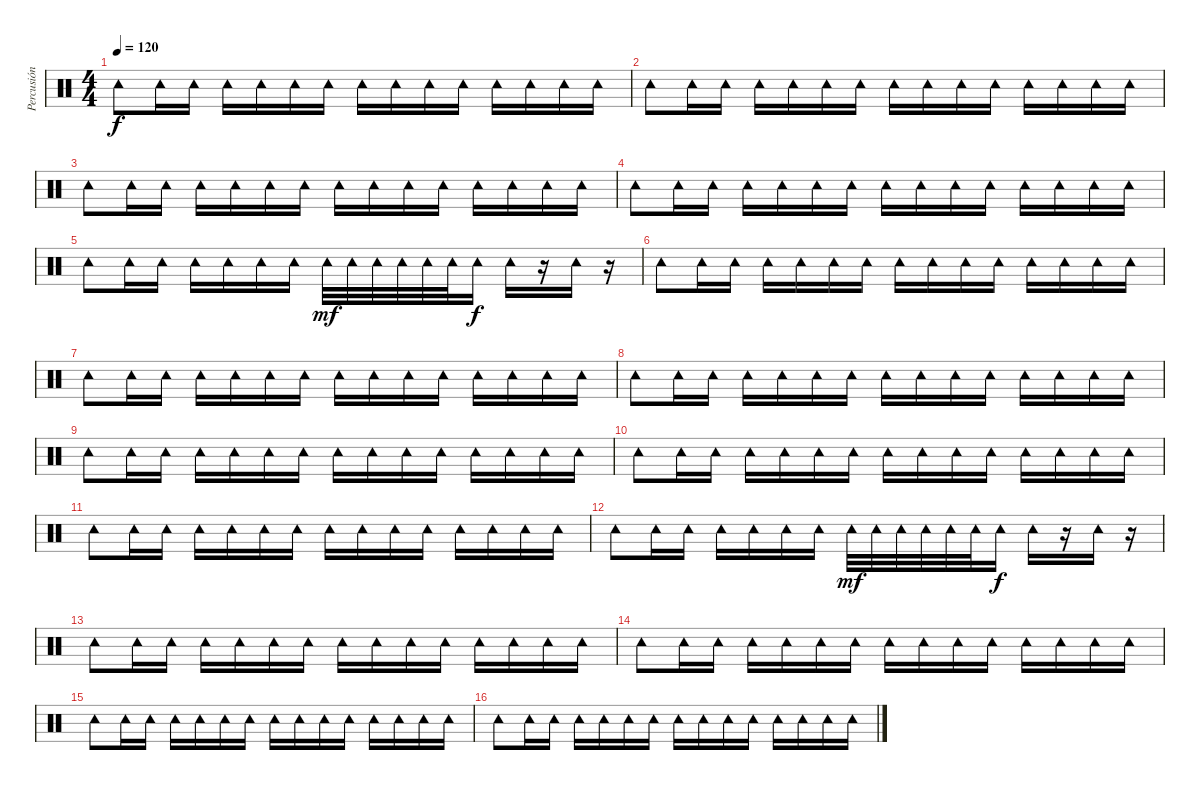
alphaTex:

\track ("Percusión" "Percusión") {instrument percussion}
\staff {score}
\articulation defaults
\ts (4 4)
\tempo 120
\clef neutral
\ks c "Tambourine (hit)".8{dy f} "Tambourine (hit)".16 "Tambourine (hit)".16 "Tambourine (hit)".16 "Tambourine (hit)".16 "Tambourine (hit)".16 "Tambourine (hit)".16 "Tambourine (hit)".16 "Tambourine (hit)".16 "Tambourine (hit)".16 "Tambourine (hit)".16 "Tambourine (hit)".16 "Tambourine (hit)".16 "Tambourine (hit)".16 "Tambourine (hit)".16
|
"Tambourine (hit)".8 "Tambourine (hit)".16 "Tambourine (hit)".16 "Tambourine (hit)".16 "Tambourine (hit)".16 "Tambourine (hit)".16 "Tambourine (hit)".16 "Tambourine (hit)".16 "Tambourine (hit)".16 "Tambourine (hit)".16 "Tambourine (hit)".16 "Tambourine (hit)".16 "Tambourine (hit)".16 "Tambourine (hit)".16 "Tambourine (hit)".16 |
"Tambourine (hit)".8 "Tambourine (hit)".16 "Tambourine (hit)".16 "Tambourine (hit)".16 "Tambourine (hit)".16 "Tambourine (hit)".16 "Tambourine (hit)".16 "Tambourine (hit)".16 "Tambourine (hit)".16 "Tambourine (hit)".16 "Tambourine (hit)".16 "Tambourine (hit)".16 "Tambourine (hit)".16 "Tambourine (hit)".16 "Tambourine (hit)".16 |
"Tambourine (hit)".8 "Tambourine (hit)".16 "Tambourine (hit)".16 "Tambourine (hit)".16 "Tambourine (hit)".16 "Tambourine (hit)".16 "Tambourine (hit)".16 "Tambourine (hit)".16 "Tambourine (hit)".16 "Tambourine (hit)".16 "Tambourine (hit)".16 "Tambourine (hit)".16 "Tambourine (hit)".16 "Tambourine (hit)".16 "Tambourine (hit)".16 |
"Tambourine (hit)".8 "Tambourine (hit)".16 "Tambourine (hit)".16 "Tambourine (hit)".16 "Tambourine (hit)".16 "Tambourine (hit)".16 "Tambourine (hit)".16 "Tambourine (hit)".32{dy mf} "Tambourine (hit)".32 "Tambourine (hit)".32 "Tambourine (hit)".32 "Tambourine (hit)".32 "Tambourine (hit)".32 "Tambourine (hit)".16{dy f} "Tambourine (hit)".16 r.16 "Tambourine (hit)".16 r.16 |
"Tambourine (hit)".8 "Tambourine (hit)".16 "Tambourine (hit)".16 "Tambourine (hit)".16 "Tambourine (hit)".16 "Tambourine (hit)".16 "Tambourine (hit)".16 "Tambourine (hit)".16 "Tambourine (hit)".16 "Tambourine (hit)".16 "Tambourine (hit)".16 "Tambourine (hit)".16 "Tambourine (hit)".16 "Tambourine (hit)".16 "Tambourine (hit)".16 |
"Tambourine (hit)".8 "Tambourine (hit)".16 "Tambourine (hit)".16 "Tambourine (hit)".16 "Tambourine (hit)".16 "Tambourine (hit)".16 "Tambourine (hit)".16 "Tambourine (hit)".16 "Tambourine (hit)".16 "Tambourine (hit)".16 "Tambourine (hit)".16 "Tambourine (hit)".16 "Tambourine (hit)".16 "Tambourine (hit)".16 "Tambourine (hit)".16 |
"Tambourine (hit)".8 "Tambourine (hit)".16 "Tambourine (hit)".16 "Tambourine (hit)".16 "Tambourine (hit)".16 "Tambourine (hit)".16 "Tambourine (hit)".16 "Tambourine (hit)".16 "Tambourine (hit)".16 "Tambourine (hit)".16 "Tambourine (hit)".16 "Tambourine (hit)".16 "Tambourine (hit)".16 "Tambourine (hit)".16 "Tambourine (hit)".16 |
"Tambourine (hit)".8 "Tambourine (hit)".16 "Tambourine (hit)".16 "Tambourine (hit)".16 "Tambourine (hit)".16 "Tambourine (hit)".16 "Tambourine (hit)".16 "Tambourine (hit)".16 "Tambourine (hit)".16 "Tambourine (hit)".16 "Tambourine (hit)".16 "Tambourine (hit)".16 "Tambourine (hit)".16 "Tambourine (hit)".16 "Tambourine (hit)".16 |
"Tambourine (hit)".8 "Tambourine (hit)".16 "Tambourine (hit)".16 "Tambourine (hit)".16 "Tambourine (hit)".16 "Tambourine (hit)".16 "Tambourine (hit)".16 "Tambourine (hit)".16 "Tambourine (hit)".16 "Tambourine (hit)".16 "Tambourine (hit)".16 "Tambourine (hit)".16 "Tambourine (hit)".16 "Tambourine (hit)".16 "Tambourine (hit)".16 |
"Tambourine (hit)".8 "Tambourine (hit)".16 "Tambourine (hit)".16 "Tambourine (hit)".16 "Tambourine (hit)".16 "Tambourine (hit)".16 "Tambourine (hit)".16 "Tambourine (hit)".16 "Tambourine (hit)".16 "Tambourine (hit)".16 "Tambourine (hit)".16 "Tambourine (hit)".16 "Tambourine (hit)".16 "Tambourine (hit)".16 "Tambourine (hit)".16 |
"Tambourine (hit)".8 "Tambourine (hit)".16 "Tambourine (hit)".16 "Tambourine (hit)".16 "Tambourine (hit)".16 "Tambourine (hit)".16 "Tambourine (hit)".16 "Tambourine (hit)".32{dy mf} "Tambourine (hit)".32 "Tambourine (hit)".32 "Tambourine (hit)".32 "Tambourine (hit)".32 "Tambourine (hit)".32 "Tambourine (hit)".16{dy f} "Tambourine (hit)".16 r.16 "Tambourine (hit)".16 r.16 |
"Tambourine (hit)".8 "Tambourine (hit)".16 "Tambourine (hit)".16 "Tambourine (hit)".16 "Tambourine (hit)".16 "Tambourine (hit)".16 "Tambourine (hit)".16 "Tambourine (hit)".16 "Tambourine (hit)".16 "Tambourine (hit)".16 "Tambourine (hit)".16 "Tambourine (hit)".16 "Tambourine (hit)".16 "Tambourine (hit)".16 "Tambourine (hit)".16 |
"Tambourine (hit)".8 "Tambourine (hit)".16 "Tambourine (hit)".16 "Tambourine (hit)".16 "Tambourine (hit)".16 "Tambourine (hit)".16 "Tambourine (hit)".16 "Tambourine (hit)".16 "Tambourine (hit)".16 "Tambourine (hit)".16 "Tambourine (hit)".16 "Tambourine (hit)".16 "Tambourine (hit)".16 "Tambourine (hit)".16 "Tambourine (hit)".16 |
"Tambourine (hit)".8 "Tambourine (hit)".16 "Tambourine (hit)".16 "Tambourine (hit)".16 "Tambourine (hit)".16 "Tambourine (hit)".16 "Tambourine (hit)".16 "Tambourine (hit)".16 "Tambourine (hit)".16 "Tambourine (hit)".16 "Tambourine (hit)".16 "Tambourine (hit)".16 "Tambourine (hit)".16 "Tambourine (hit)".16 "Tambourine (hit)".16 |
"Tambourine (hit)".8 "Tambourine (hit)".16 "Tambourine (hit)".16 "Tambourine (hit)".16 "Tambourine (hit)".16 "Tambourine (hit)".16 "Tambourine (hit)".16 "Tambourine (hit)".16 "Tambourine (hit)".16 "Tambourine (hit)".16 "Tambourine (hit)".16 "Tambourine (hit)".16 "Tambourine (hit)".16 "Tambourine (hit)".16 "Tambourine (hit)".16
